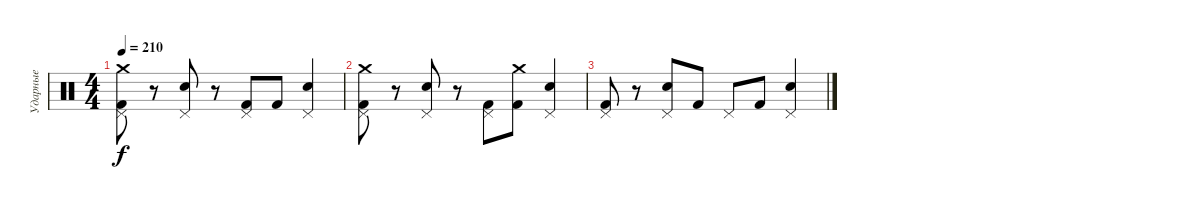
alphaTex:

\track ("Ударные" "Ударные") {instrument percussion}
\staff {score}
\articulation defaults
\ts (4 4)
\tempo 210
\clef neutral
\ks c
("Kick (hit) 2" "Pedal Hi-Hat (hit)" "Crash medium (hit)").8{dy f} r.8 ("Pedal Hi-Hat (hit)" "Electric Snare (hit)").8 r.8 ("Kick (hit) 2" "Pedal Hi-Hat (hit)").8 "Kick (hit) 2".8 ("Electric Snare (hit)" "Pedal Hi-Hat (hit)").4 |
("Kick (hit) 2" "Pedal Hi-Hat (hit)" "Crash medium (hit)").8 r.8 ("Pedal Hi-Hat (hit)" "Electric Snare (hit)").8 r.8 ("Kick (hit) 2" "Pedal Hi-Hat (hit)").8 ("Kick (hit) 2" "Crash medium (hit)").8 ("Electric Snare (hit)" "Pedal Hi-Hat (hit)").4 |
("Kick (hit) 2" "Pedal Hi-Hat (hit)").8 r.8 ("Pedal Hi-Hat (hit)" "Electric Snare (hit)").8 "Kick (hit) 2".8 "Pedal Hi-Hat (hit)".8 "Kick (hit) 2".8 ("Electric Snare (hit)" "Pedal Hi-Hat (hit)").4
